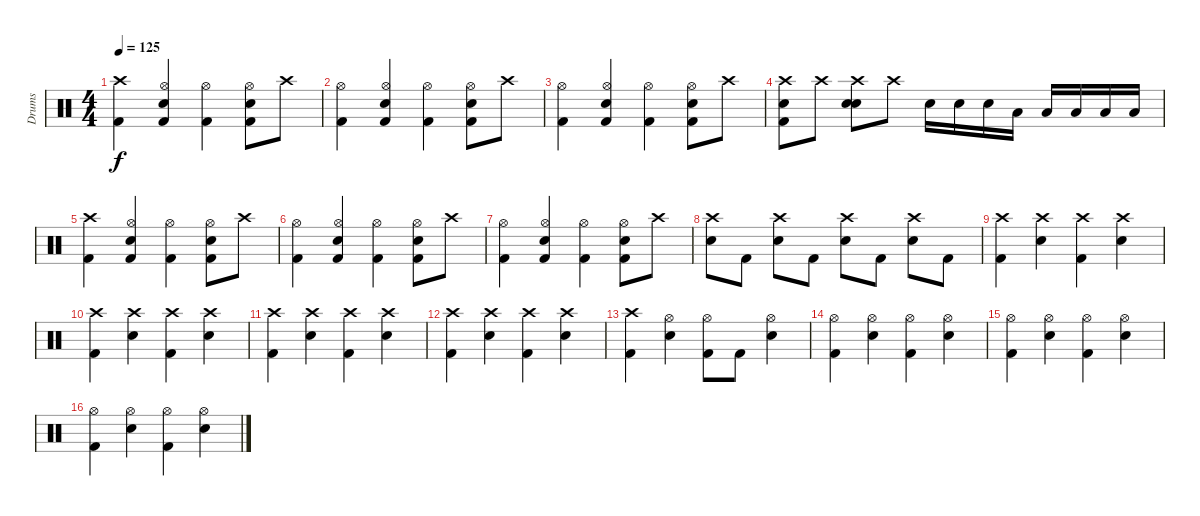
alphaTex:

\track ("Drums" "Drums") {instrument percussion}
\staff {score}
\articulation defaults
\ts (4 4)
\tempo 125
\clef neutral
\ks c
("Crash high (hit)" "Kick (hit) 2").4{dy f} ("Hi-Hat (open)" "Snare (hit) 2" "Kick (hit) 2").4 ("Hi-Hat (open)" "Kick (hit) 2").4 ("Hi-Hat (open)" "Snare (hit) 2" "Kick (hit) 2").8 "Crash high (hit)".8 |
("Hi-Hat (open)" "Kick (hit) 2").4 ("Hi-Hat (open)" "Snare (hit) 2" "Kick (hit) 2").4 ("Hi-Hat (open)" "Kick (hit) 2").4 ("Hi-Hat (open)" "Snare (hit) 2" "Kick (hit) 2").8 "Crash high (hit)".8 |
("Hi-Hat (open)" "Kick (hit) 2").4 ("Hi-Hat (open)" "Snare (hit) 2" "Kick (hit) 2").4 ("Hi-Hat (open)" "Kick (hit) 2").4 ("Hi-Hat (open)" "Snare (hit) 2" "Kick (hit) 2").8 "Crash high (hit)".8 |
("Crash high (hit)" "Snare (hit) 2" "Kick (hit) 2").8 "Crash high (hit)".8 ("Crash high (hit)" "Snare (hit) 2" "Snare (hit)").8 "Crash high (hit)".8 "Snare (hit) 2".16 "Snare (hit) 2".16 "Snare (hit) 2".16 "Low Tom (hit)".16 "Low Tom (hit)".16 "Low Tom (hit)".16 "Low Floor Tom (hit)".16 "Low Floor Tom (hit)".16 |
("Crash high (hit)" "Kick (hit) 2").4 ("Hi-Hat (open)" "Snare (hit) 2" "Kick (hit) 2").4 ("Hi-Hat (open)" "Kick (hit) 2").4 ("Hi-Hat (open)" "Snare (hit) 2" "Kick (hit) 2").8 "Crash high (hit)".8 |
("Hi-Hat (open)" "Kick (hit) 2").4 ("Hi-Hat (open)" "Snare (hit) 2" "Kick (hit) 2").4 ("Hi-Hat (open)" "Kick (hit) 2").4 ("Hi-Hat (open)" "Snare (hit) 2" "Kick (hit) 2").8 "Crash high (hit)".8 |
("Hi-Hat (open)" "Kick (hit) 2").4 ("Hi-Hat (open)" "Snare (hit) 2" "Kick (hit) 2").4 ("Hi-Hat (open)" "Kick (hit) 2").4 ("Hi-Hat (open)" "Snare (hit) 2" "Kick (hit) 2").8 "Crash high (hit)".8 |
("Crash high (hit)" "Snare (hit) 2").8 "Kick (hit) 2".8 ("Crash high (hit)" "Snare (hit) 2").8 "Kick (hit) 2".8 ("Crash high (hit)" "Snare (hit) 2").8 "Kick (hit) 2".8 ("Crash high (hit)" "Snare (hit) 2").8 "Kick (hit) 2".8 |
("Crash high (hit)" "Kick (hit) 2").4 ("Crash high (hit)" "Snare (hit) 2").4 ("Crash high (hit)" "Kick (hit) 2").4 ("Crash high (hit)" "Snare (hit) 2").4 |
("Crash high (hit)" "Kick (hit) 2").4 ("Crash high (hit)" "Snare (hit) 2").4 ("Crash high (hit)" "Kick (hit) 2").4 ("Crash high (hit)" "Snare (hit) 2").4 |
("Crash high (hit)" "Kick (hit) 2").4 ("Crash high (hit)" "Snare (hit) 2").4 ("Crash high (hit)" "Kick (hit) 2").4 ("Crash high (hit)" "Snare (hit) 2").4 |
("Crash high (hit)" "Kick (hit) 2").4 ("Crash high (hit)" "Snare (hit) 2").4 ("Crash high (hit)" "Kick (hit) 2").4 ("Crash high (hit)" "Snare (hit) 2").4 |
("Crash high (hit)" "Kick (hit) 2").4 ("Hi-Hat (open)" "Snare (hit) 2").4 ("Hi-Hat (open)" "Kick (hit) 2").8 "Kick (hit) 2".8 ("Hi-Hat (open)" "Snare (hit) 2").4 |
("Hi-Hat (open)" "Kick (hit) 2").4 ("Hi-Hat (open)" "Snare (hit) 2").4 ("Hi-Hat (open)" "Kick (hit) 2").4 ("Hi-Hat (open)" "Snare (hit) 2").4 |
("Hi-Hat (open)" "Kick (hit) 2").4 ("Hi-Hat (open)" "Snare (hit) 2").4 ("Hi-Hat (open)" "Kick (hit) 2").4 ("Hi-Hat (open)" "Snare (hit) 2").4 |
("Hi-Hat (open)" "Kick (hit) 2").4 ("Hi-Hat (open)" "Snare (hit) 2").4 ("Hi-Hat (open)" "Kick (hit) 2").4 ("Hi-Hat (open)" "Snare (hit) 2").4
